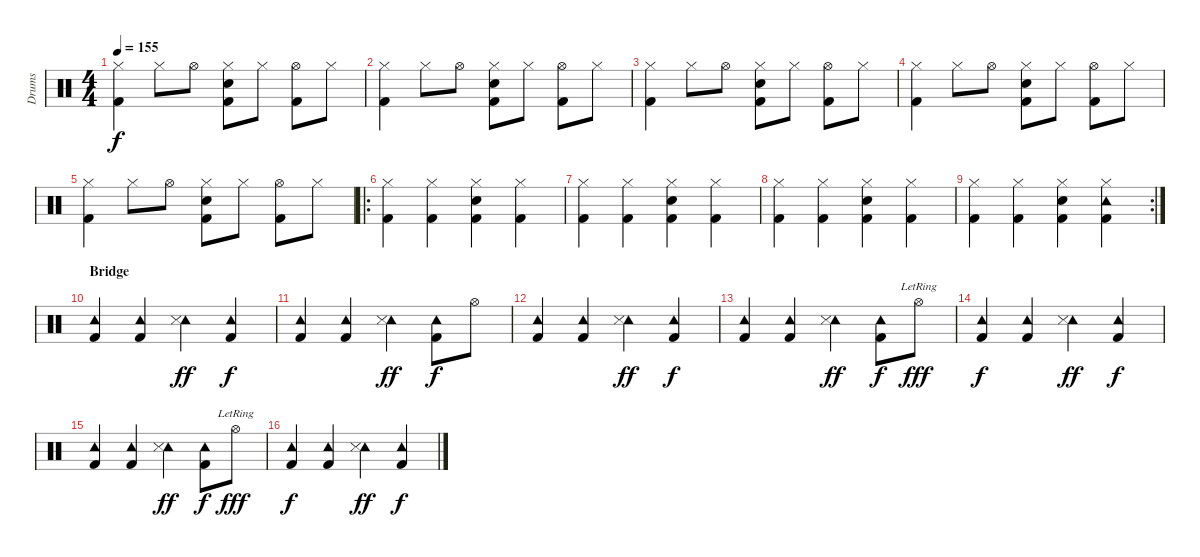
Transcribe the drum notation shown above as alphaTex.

\track ("Drums" "Drums") {instrument percussion}
\staff {score}
\articulation defaults
\ts (4 4)
\tempo 155
\clef neutral
\ks c
("Hi-Hat (closed)" "Kick (hit) 2").4{dy f} "Hi-Hat (closed)".8 "Hi-Hat (open)".8 ("Hi-Hat (closed)" "Snare (hit) 2" "Kick (hit) 2").8 "Hi-Hat (closed)".8 ("Hi-Hat (open)" "Kick (hit) 2").8 "Hi-Hat (closed)".8 |
("Hi-Hat (closed)" "Kick (hit) 2").4 "Hi-Hat (closed)".8 "Hi-Hat (open)".8 ("Hi-Hat (closed)" "Snare (hit) 2" "Kick (hit) 2").8 "Hi-Hat (closed)".8 ("Hi-Hat (open)" "Kick (hit) 2").8 "Hi-Hat (closed)".8 |
("Hi-Hat (closed)" "Kick (hit) 2").4 "Hi-Hat (closed)".8 "Hi-Hat (open)".8 ("Hi-Hat (closed)" "Snare (hit) 2" "Kick (hit) 2").8 "Hi-Hat (closed)".8 ("Hi-Hat (open)" "Kick (hit) 2").8 "Hi-Hat (closed)".8 |
("Hi-Hat (closed)" "Kick (hit) 2").4 "Hi-Hat (closed)".8 "Hi-Hat (open)".8 ("Hi-Hat (closed)" "Snare (hit) 2" "Kick (hit) 2").8 "Hi-Hat (closed)".8 ("Hi-Hat (open)" "Kick (hit) 2").8 "Hi-Hat (closed)".8 |
("Hi-Hat (closed)" "Kick (hit) 2").4 "Hi-Hat (closed)".8 "Hi-Hat (open)".8 ("Hi-Hat (closed)" "Snare (hit) 2" "Kick (hit) 2").8 "Hi-Hat (closed)".8 ("Hi-Hat (open)" "Kick (hit) 2").8 "Hi-Hat (closed)".8 |
\ro
("Hi-Hat (closed)" "Kick (hit) 2").4 ("Hi-Hat (closed)" "Kick (hit) 2").4 ("Hi-Hat (closed)" "Snare (hit) 2" "Kick (hit) 2").4 ("Hi-Hat (closed)" "Kick (hit) 2").4 |
("Hi-Hat (closed)" "Kick (hit) 2").4 ("Hi-Hat (closed)" "Kick (hit) 2").4 ("Hi-Hat (closed)" "Snare (hit) 2" "Kick (hit) 2").4 ("Hi-Hat (closed)" "Kick (hit) 2").4 |
("Hi-Hat (closed)" "Kick (hit) 2").4 ("Hi-Hat (closed)" "Kick (hit) 2").4 ("Hi-Hat (closed)" "Snare (hit) 2" "Kick (hit) 2").4 ("Hi-Hat (closed)" "Kick (hit) 2").4 |
\rc 2
("Hi-Hat (closed)" "Kick (hit) 2").4 ("Hi-Hat (closed)" "Kick (hit) 2").4 ("Hi-Hat (closed)" "Snare (hit) 2" "Kick (hit) 2").4 ("Tambourine (hit)" "Hi-Hat (closed)" "Kick (hit) 2").4 |
\section ("" "Bridge")
("Tambourine (hit)" "Kick (hit) 2").4 ("Tambourine (hit)" "Kick (hit) 2").4 ("Tambourine (hit)" "Snare (side stick) 3").4{dy ff} ("Tambourine (hit)" "Kick (hit) 2").4{dy f} |
("Tambourine (hit)" "Kick (hit) 2").4 ("Tambourine (hit)" "Kick (hit) 2").4 ("Tambourine (hit)" "Snare (side stick) 3").4{dy ff} ("Tambourine (hit)" "Kick (hit) 2").8{dy f} "Hi-Hat (open)".8 |
("Tambourine (hit)" "Kick (hit) 2").4 ("Tambourine (hit)" "Kick (hit) 2").4 ("Tambourine (hit)" "Snare (side stick) 3").4{dy ff} ("Tambourine (hit)" "Kick (hit) 2").4{dy f} |
("Tambourine (hit)" "Kick (hit) 2").4 ("Tambourine (hit)" "Kick (hit) 2").4 ("Tambourine (hit)" "Snare (side stick) 3").4{dy ff} ("Tambourine (hit)" "Kick (hit) 2").8{dy f} "Hi-Hat (open)"{lr}.8{dy fff} |
("Tambourine (hit)" "Kick (hit) 2").4{dy f} ("Tambourine (hit)" "Kick (hit) 2").4 ("Tambourine (hit)" "Snare (side stick) 3").4{dy ff} ("Tambourine (hit)" "Kick (hit) 2").4{dy f} |
("Tambourine (hit)" "Kick (hit) 2").4 ("Tambourine (hit)" "Kick (hit) 2").4 ("Tambourine (hit)" "Snare (side stick) 3").4{dy ff} ("Tambourine (hit)" "Kick (hit) 2").8{dy f} "Hi-Hat (open)"{lr}.8{dy fff} |
("Tambourine (hit)" "Kick (hit) 2").4{dy f} ("Tambourine (hit)" "Kick (hit) 2").4 ("Tambourine (hit)" "Snare (side stick) 3").4{dy ff} ("Tambourine (hit)" "Kick (hit) 2").4{dy f}
